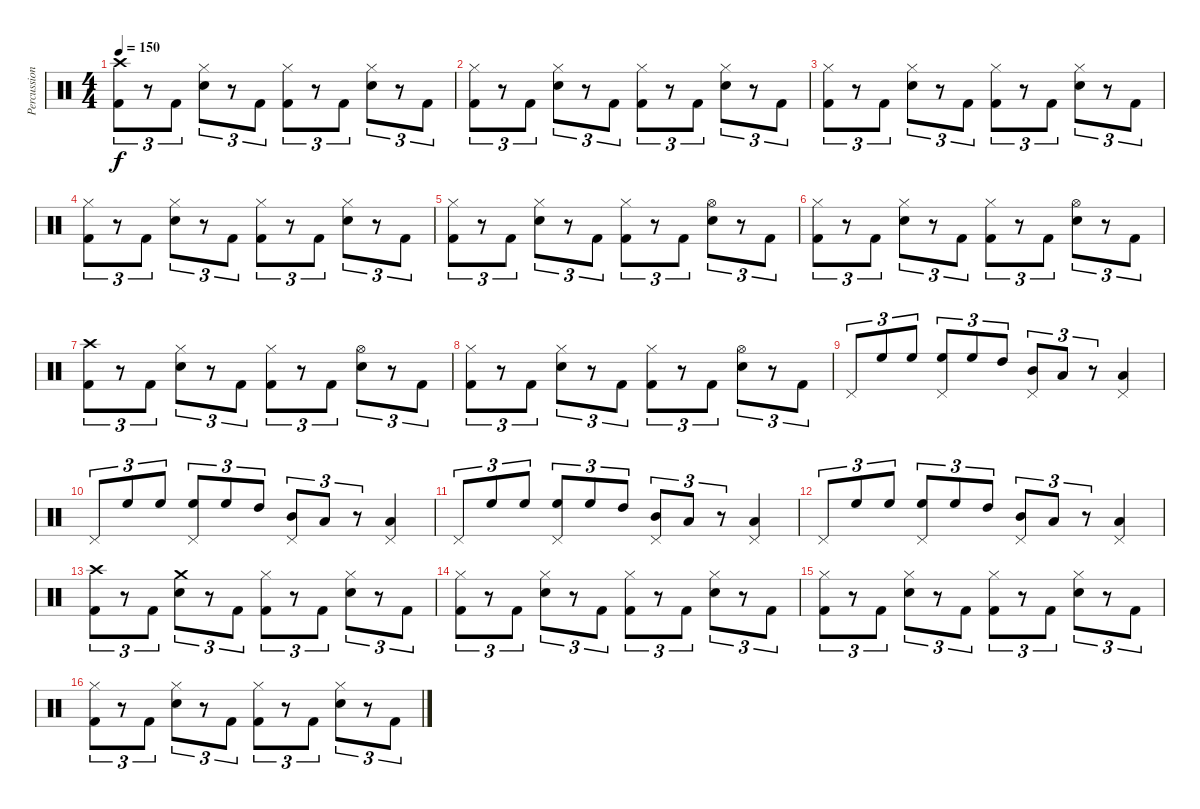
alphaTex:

\track ("Percussions" "Percussion") {instrument percussion}
\staff {score}
\articulation defaults
\ts (4 4)
\tempo 150
\clef neutral
\ks c
("Crash high (hit)" "Kick (hit) 2").8{tu (3 2) dy f} r.8{tu (3 2)} "Kick (hit) 2".8{tu (3 2)} ("Hi-Hat (closed)" "Snare (hit) 2").8{tu (3 2)} r.8{tu (3 2)} "Kick (hit) 2".8{tu (3 2)} ("Hi-Hat (closed)" "Kick (hit) 2").8{tu (3 2)} r.8{tu (3 2)} "Kick (hit) 2".8{tu (3 2)} ("Hi-Hat (closed)" "Snare (hit) 2").8{tu (3 2)} r.8{tu (3 2)} "Kick (hit) 2".8{tu (3 2)} |
("Hi-Hat (closed)" "Kick (hit) 2").8{tu (3 2)} r.8{tu (3 2)} "Kick (hit) 2".8{tu (3 2)} ("Hi-Hat (closed)" "Snare (hit) 2").8{tu (3 2)} r.8{tu (3 2)} "Kick (hit) 2".8{tu (3 2)} ("Hi-Hat (closed)" "Kick (hit) 2").8{tu (3 2)} r.8{tu (3 2)} "Kick (hit) 2".8{tu (3 2)} ("Hi-Hat (closed)" "Snare (hit) 2").8{tu (3 2)} r.8{tu (3 2)} "Kick (hit) 2".8{tu (3 2)} |
("Hi-Hat (closed)" "Kick (hit) 2").8{tu (3 2)} r.8{tu (3 2)} "Kick (hit) 2".8{tu (3 2)} ("Hi-Hat (closed)" "Snare (hit) 2").8{tu (3 2)} r.8{tu (3 2)} "Kick (hit) 2".8{tu (3 2)} ("Hi-Hat (closed)" "Kick (hit) 2").8{tu (3 2)} r.8{tu (3 2)} "Kick (hit) 2".8{tu (3 2)} ("Hi-Hat (closed)" "Snare (hit) 2").8{tu (3 2)} r.8{tu (3 2)} "Kick (hit) 2".8{tu (3 2)} |
("Hi-Hat (closed)" "Kick (hit) 2").8{tu (3 2)} r.8{tu (3 2)} "Kick (hit) 2".8{tu (3 2)} ("Hi-Hat (closed)" "Snare (hit) 2").8{tu (3 2)} r.8{tu (3 2)} "Kick (hit) 2".8{tu (3 2)} ("Hi-Hat (closed)" "Kick (hit) 2").8{tu (3 2)} r.8{tu (3 2)} "Kick (hit) 2".8{tu (3 2)} ("Hi-Hat (closed)" "Snare (hit) 2").8{tu (3 2)} r.8{tu (3 2)} "Kick (hit) 2".8{tu (3 2)} |
("Hi-Hat (closed)" "Kick (hit) 2").8{tu (3 2)} r.8{tu (3 2)} "Kick (hit) 2".8{tu (3 2)} ("Hi-Hat (closed)" "Snare (hit) 2").8{tu (3 2)} r.8{tu (3 2)} "Kick (hit) 2".8{tu (3 2)} ("Hi-Hat (closed)" "Kick (hit) 2").8{tu (3 2)} r.8{tu (3 2)} "Kick (hit) 2".8{tu (3 2)} ("Hi-Hat (open)" "Snare (hit) 2").8{tu (3 2)} r.8{tu (3 2)} "Kick (hit) 2".8{tu (3 2)} |
("Hi-Hat (closed)" "Kick (hit) 2").8{tu (3 2)} r.8{tu (3 2)} "Kick (hit) 2".8{tu (3 2)} ("Hi-Hat (closed)" "Snare (hit) 2").8{tu (3 2)} r.8{tu (3 2)} "Kick (hit) 2".8{tu (3 2)} ("Hi-Hat (closed)" "Kick (hit) 2").8{tu (3 2)} r.8{tu (3 2)} "Kick (hit) 2".8{tu (3 2)} ("Hi-Hat (open)" "Snare (hit) 2").8{tu (3 2)} r.8{tu (3 2)} "Kick (hit) 2".8{tu (3 2)} |
("Crash high (hit)" "Kick (hit) 2").8{tu (3 2)} r.8{tu (3 2)} "Kick (hit) 2".8{tu (3 2)} ("Hi-Hat (closed)" "Snare (hit) 2").8{tu (3 2)} r.8{tu (3 2)} "Kick (hit) 2".8{tu (3 2)} ("Hi-Hat (closed)" "Kick (hit) 2").8{tu (3 2)} r.8{tu (3 2)} "Kick (hit) 2".8{tu (3 2)} ("Hi-Hat (open)" "Snare (hit) 2").8{tu (3 2)} r.8{tu (3 2)} "Kick (hit) 2".8{tu (3 2)} |
("Hi-Hat (closed)" "Kick (hit) 2").8{tu (3 2)} r.8{tu (3 2)} "Kick (hit) 2".8{tu (3 2)} ("Hi-Hat (closed)" "Snare (hit) 2").8{tu (3 2)} r.8{tu (3 2)} "Kick (hit) 2".8{tu (3 2)} ("Hi-Hat (closed)" "Kick (hit) 2").8{tu (3 2)} r.8{tu (3 2)} "Kick (hit) 2".8{tu (3 2)} ("Hi-Hat (open)" "Snare (hit) 2").8{tu (3 2)} r.8{tu (3 2)} "Kick (hit) 2".8{tu (3 2)} |
"Pedal Hi-Hat (hit)".8{tu (3 2)} "High Floor Tom (hit)".8{tu (3 2)} "High Floor Tom (hit)".8{tu (3 2)} ("High Floor Tom (hit)" "Pedal Hi-Hat (hit)").8{tu (3 2)} "High Floor Tom (hit)".8{tu (3 2)} "High Tom (hit)".8{tu (3 2)} ("Mid Tom (hit)" "Pedal Hi-Hat (hit)").8{tu (3 2)} "Low Tom (hit)".8{tu (3 2)} r.8{tu (3 2)} ("Low Tom (hit)" "Pedal Hi-Hat (hit)").4 |
"Pedal Hi-Hat (hit)".8{tu (3 2)} "High Floor Tom (hit)".8{tu (3 2)} "High Floor Tom (hit)".8{tu (3 2)} ("High Floor Tom (hit)" "Pedal Hi-Hat (hit)").8{tu (3 2)} "High Floor Tom (hit)".8{tu (3 2)} "High Tom (hit)".8{tu (3 2)} ("Mid Tom (hit)" "Pedal Hi-Hat (hit)").8{tu (3 2)} "Low Tom (hit)".8{tu (3 2)} r.8{tu (3 2)} ("Low Tom (hit)" "Pedal Hi-Hat (hit)").4 |
"Pedal Hi-Hat (hit)".8{tu (3 2)} "High Floor Tom (hit)".8{tu (3 2)} "High Floor Tom (hit)".8{tu (3 2)} ("High Floor Tom (hit)" "Pedal Hi-Hat (hit)").8{tu (3 2)} "High Floor Tom (hit)".8{tu (3 2)} "High Tom (hit)".8{tu (3 2)} ("Mid Tom (hit)" "Pedal Hi-Hat (hit)").8{tu (3 2)} "Low Tom (hit)".8{tu (3 2)} r.8{tu (3 2)} ("Low Tom (hit)" "Pedal Hi-Hat (hit)").4 |
"Pedal Hi-Hat (hit)".8{tu (3 2)} "High Floor Tom (hit)".8{tu (3 2)} "High Floor Tom (hit)".8{tu (3 2)} ("High Floor Tom (hit)" "Pedal Hi-Hat (hit)").8{tu (3 2)} "High Floor Tom (hit)".8{tu (3 2)} "High Tom (hit)".8{tu (3 2)} ("Mid Tom (hit)" "Pedal Hi-Hat (hit)").8{tu (3 2)} "Low Tom (hit)".8{tu (3 2)} r.8{tu (3 2)} ("Low Tom (hit)" "Pedal Hi-Hat (hit)").4 |
("Crash high (hit)" "Kick (hit) 2").8{tu (3 2)} r.8{tu (3 2)} "Kick (hit) 2".8{tu (3 2)} ("Crash medium (hit)" "Snare (hit) 2").8{tu (3 2)} r.8{tu (3 2)} "Kick (hit) 2".8{tu (3 2)} ("Hi-Hat (closed)" "Kick (hit) 2").8{tu (3 2)} r.8{tu (3 2)} "Kick (hit) 2".8{tu (3 2)} ("Hi-Hat (closed)" "Snare (hit) 2").8{tu (3 2)} r.8{tu (3 2)} "Kick (hit) 2".8{tu (3 2)} |
("Hi-Hat (closed)" "Kick (hit) 2").8{tu (3 2)} r.8{tu (3 2)} "Kick (hit) 2".8{tu (3 2)} ("Hi-Hat (closed)" "Snare (hit) 2").8{tu (3 2)} r.8{tu (3 2)} "Kick (hit) 2".8{tu (3 2)} ("Hi-Hat (closed)" "Kick (hit) 2").8{tu (3 2)} r.8{tu (3 2)} "Kick (hit) 2".8{tu (3 2)} ("Hi-Hat (closed)" "Snare (hit) 2").8{tu (3 2)} r.8{tu (3 2)} "Kick (hit) 2".8{tu (3 2)} |
("Hi-Hat (closed)" "Kick (hit) 2").8{tu (3 2)} r.8{tu (3 2)} "Kick (hit) 2".8{tu (3 2)} ("Hi-Hat (closed)" "Snare (hit) 2").8{tu (3 2)} r.8{tu (3 2)} "Kick (hit) 2".8{tu (3 2)} ("Hi-Hat (closed)" "Kick (hit) 2").8{tu (3 2)} r.8{tu (3 2)} "Kick (hit) 2".8{tu (3 2)} ("Hi-Hat (closed)" "Snare (hit) 2").8{tu (3 2)} r.8{tu (3 2)} "Kick (hit) 2".8{tu (3 2)} |
("Hi-Hat (closed)" "Kick (hit) 2").8{tu (3 2)} r.8{tu (3 2)} "Kick (hit) 2".8{tu (3 2)} ("Hi-Hat (closed)" "Snare (hit) 2").8{tu (3 2)} r.8{tu (3 2)} "Kick (hit) 2".8{tu (3 2)} ("Hi-Hat (closed)" "Kick (hit) 2").8{tu (3 2)} r.8{tu (3 2)} "Kick (hit) 2".8{tu (3 2)} ("Hi-Hat (closed)" "Snare (hit) 2").8{tu (3 2)} r.8{tu (3 2)} "Kick (hit) 2".8{tu (3 2)}
